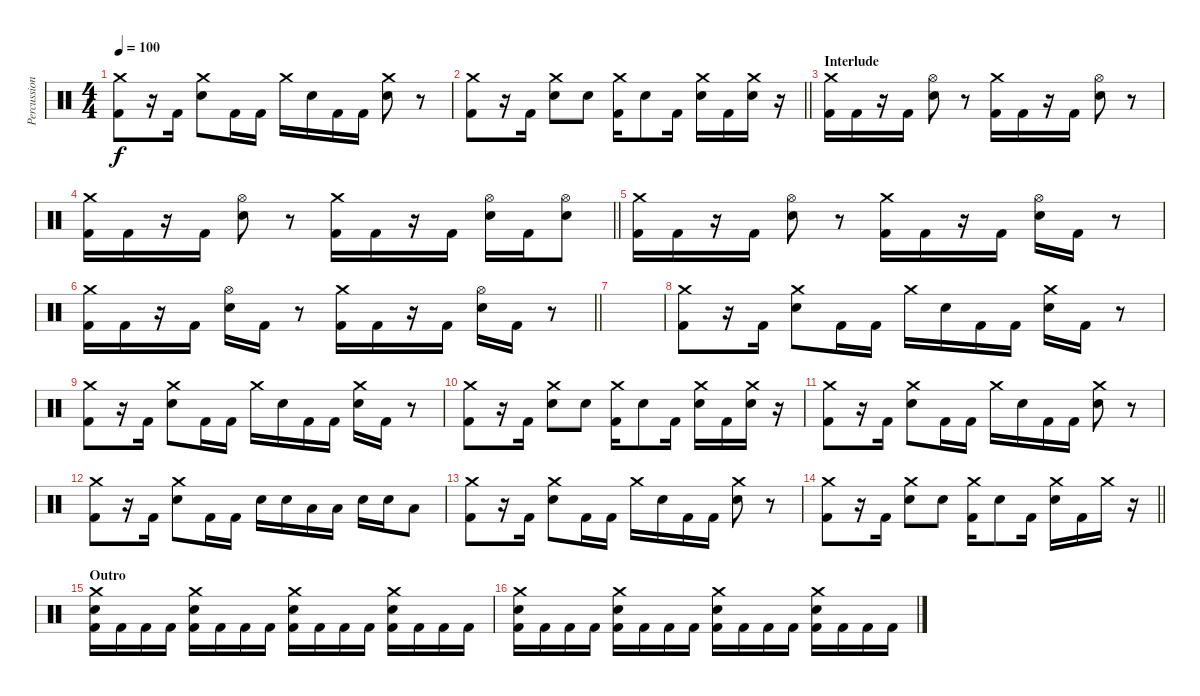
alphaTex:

\track ("Percussion" "Percussion") {instrument percussion}
\staff {score}
\articulation defaults
\ts (4 4)
\tempo 100
\clef neutral
\ks c
("Crash medium (hit)" "Kick (hit) 2").8{dy f} r.16 "Kick (hit) 2".16 ("Crash medium (hit)" "Snare (hit) 2").8 "Kick (hit) 2".16 "Kick (hit) 2".16 "Crash medium (hit)".16 "Snare (hit) 2".16 "Kick (hit) 2".16 "Kick (hit) 2".16 ("Crash medium (hit)" "Snare (hit) 2").8 r.8 |
\barLineRight lightlight
("Crash medium (hit)" "Kick (hit) 2").8 r.16 "Kick (hit) 2".16 ("Crash medium (hit)" "Snare (hit) 2").8 "Snare (hit) 2".8 ("Crash medium (hit)" "Kick (hit) 2").16 "Snare (hit) 2".8 "Kick (hit) 2".16 ("Crash medium (hit)" "Snare (hit) 2").16 "Kick (hit) 2".16 ("Crash medium (hit)" "Snare (hit) 2").16 r.16 |
\section ("" "Interlude")
("Crash medium (hit)" "Kick (hit) 2").16 "Kick (hit) 2".16 r.16 "Kick (hit) 2".16 ("Hi-Hat (open)" "Snare (hit) 2").8 r.8 ("Crash medium (hit)" "Kick (hit) 2").16 "Kick (hit) 2".16 r.16 "Kick (hit) 2".16 ("Hi-Hat (open)" "Snare (hit) 2").8 r.8 |
\barLineRight lightlight
("Crash medium (hit)" "Kick (hit) 2").16 "Kick (hit) 2".16 r.16 "Kick (hit) 2".16 ("Hi-Hat (open)" "Snare (hit) 2").8 r.8 ("Crash medium (hit)" "Kick (hit) 2").16 "Kick (hit) 2".16 r.16 "Kick (hit) 2".16 ("Hi-Hat (open)" "Snare (hit) 2").16 "Kick (hit) 2".16 ("Hi-Hat (open)" "Snare (hit) 2").8 |
("Crash medium (hit)" "Kick (hit) 2").16 "Kick (hit) 2".16 r.16 "Kick (hit) 2".16 ("Hi-Hat (open)" "Snare (hit) 2").8 r.8 ("Crash medium (hit)" "Kick (hit) 2").16 "Kick (hit) 2".16 r.16 "Kick (hit) 2".16 ("Hi-Hat (open)" "Snare (hit) 2").16 "Kick (hit) 2".16 r.8 |
\barLineRight lightlight
("Crash medium (hit)" "Kick (hit) 2").16 "Kick (hit) 2".16 r.16 "Kick (hit) 2".16 ("Hi-Hat (open)" "Snare (hit) 2").16 "Kick (hit) 2".16 r.8 ("Crash medium (hit)" "Kick (hit) 2").16 "Kick (hit) 2".16 r.16 "Kick (hit) 2".16 ("Hi-Hat (open)" "Snare (hit) 2").16 "Kick (hit) 2".16 r.8 |
|
("Crash medium (hit)" "Kick (hit) 2").8 r.16 "Kick (hit) 2".16 ("Crash medium (hit)" "Snare (hit) 2").8 "Kick (hit) 2".16 "Kick (hit) 2".16 "Crash medium (hit)".16 "Snare (hit) 2".16 "Kick (hit) 2".16 "Kick (hit) 2".16 ("Crash medium (hit)" "Snare (hit) 2").16 "Kick (hit) 2".16 r.8 |
("Crash medium (hit)" "Kick (hit) 2").8 r.16 "Kick (hit) 2".16 ("Crash medium (hit)" "Snare (hit) 2").8 "Kick (hit) 2".16 "Kick (hit) 2".16 "Crash medium (hit)".16 "Snare (hit) 2".16 "Kick (hit) 2".16 "Kick (hit) 2".16 ("Crash medium (hit)" "Snare (hit) 2").16 "Kick (hit) 2".16 r.8 |
("Crash medium (hit)" "Kick (hit) 2").8 r.16 "Kick (hit) 2".16 ("Crash medium (hit)" "Snare (hit) 2").8 "Snare (hit) 2".8 ("Crash medium (hit)" "Kick (hit) 2").16 "Snare (hit) 2".8 "Kick (hit) 2".16 ("Crash medium (hit)" "Snare (hit) 2").16 "Kick (hit) 2".16 ("Crash medium (hit)" "Snare (hit) 2").16 r.16 |
("Crash medium (hit)" "Kick (hit) 2").8 r.16 "Kick (hit) 2".16 ("Crash medium (hit)" "Snare (hit) 2").8 "Kick (hit) 2".16 "Kick (hit) 2".16 "Crash medium (hit)".16 "Snare (hit) 2".16 "Kick (hit) 2".16 "Kick (hit) 2".16 ("Crash medium (hit)" "Snare (hit) 2").8 r.8 |
("Crash medium (hit)" "Kick (hit) 2").8 r.16 "Kick (hit) 2".16 ("Crash medium (hit)" "Snare (hit) 2").8 "Kick (hit) 2".16 "Kick (hit) 2".16 "Snare (hit) 2".16 "Snare (hit) 2".16 "Low Tom (hit)".16 "Low Tom (hit)".16 "Snare (hit) 2".16 "Snare (hit) 2".16 "Low Tom (hit)".8 |
("Crash medium (hit)" "Kick (hit) 2").8 r.16 "Kick (hit) 2".16 ("Crash medium (hit)" "Snare (hit) 2").8 "Kick (hit) 2".16 "Kick (hit) 2".16 "Crash medium (hit)".16 "Snare (hit) 2".16 "Kick (hit) 2".16 "Kick (hit) 2".16 ("Crash medium (hit)" "Snare (hit) 2").8 r.8 |
\barLineRight lightlight
("Crash medium (hit)" "Kick (hit) 2").8 r.16 "Kick (hit) 2".16 ("Crash medium (hit)" "Snare (hit) 2").8 "Snare (hit) 2".8 ("Crash medium (hit)" "Kick (hit) 2").16 "Snare (hit) 2".8 "Kick (hit) 2".16 ("Crash medium (hit)" "Snare (hit) 2").16 "Kick (hit) 2".16 "Crash medium (hit)".16 r.16 |
\section ("" "Outro")
("Crash medium (hit)" "Snare (hit) 2" "Kick (hit) 2").16 "Kick (hit) 2".16 "Kick (hit) 2".16 "Kick (hit) 2".16 ("Crash medium (hit)" "Snare (hit) 2" "Kick (hit) 2").16 "Kick (hit) 2".16 "Kick (hit) 2".16 "Kick (hit) 2".16 ("Crash medium (hit)" "Snare (hit) 2" "Kick (hit) 2").16 "Kick (hit) 2".16 "Kick (hit) 2".16 "Kick (hit) 2".16 ("Crash medium (hit)" "Snare (hit) 2" "Kick (hit) 2").16 "Kick (hit) 2".16 "Kick (hit) 2".16 "Kick (hit) 2".16 |
("Crash medium (hit)" "Snare (hit) 2" "Kick (hit) 2").16 "Kick (hit) 2".16 "Kick (hit) 2".16 "Kick (hit) 2".16 ("Crash medium (hit)" "Snare (hit) 2" "Kick (hit) 2").16 "Kick (hit) 2".16 "Kick (hit) 2".16 "Kick (hit) 2".16 ("Crash medium (hit)" "Snare (hit) 2" "Kick (hit) 2").16 "Kick (hit) 2".16 "Kick (hit) 2".16 "Kick (hit) 2".16 ("Crash medium (hit)" "Snare (hit) 2" "Kick (hit) 2").16 "Kick (hit) 2".16 "Kick (hit) 2".16 "Kick (hit) 2".16
